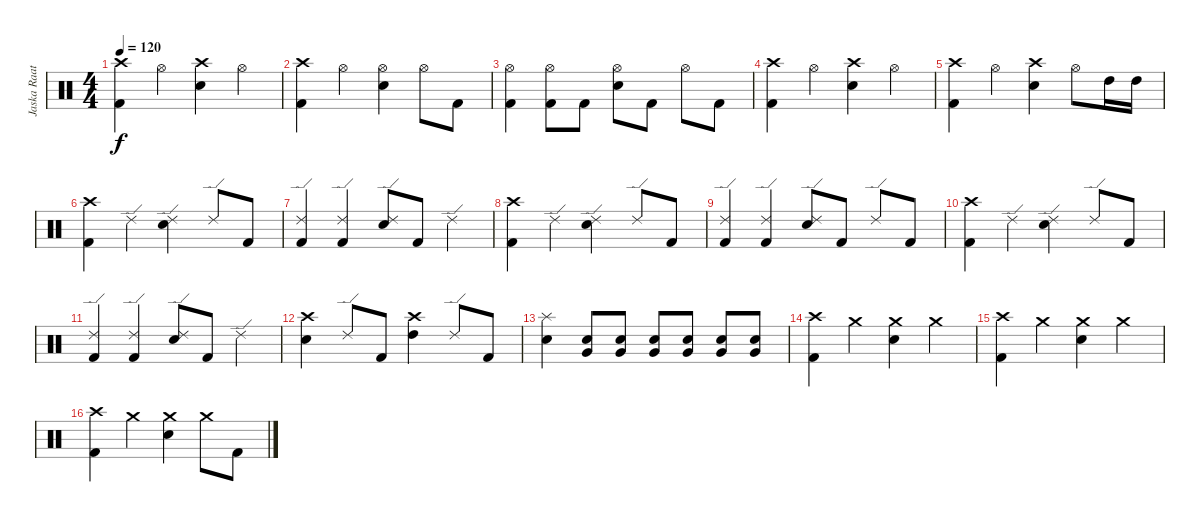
\track ("Jaska Raatikainen" "Jaska Raat") {instrument percussion}
\staff {score}
\articulation defaults
\ts (4 4)
\tempo 120
\clef neutral
\ks c
("Crash high (hit)" "Kick (hit) 2").4{dy f} "Hi-Hat (open)".4 ("Crash high (hit)" "Snare (hit) 2").4 "Hi-Hat (open)".4 |
("Crash high (hit)" "Kick (hit) 2").4 "Hi-Hat (open)".4 ("Hi-Hat (open)" "Snare (hit) 2").4 "Hi-Hat (open)".8 "Kick (hit) 2".8 |
("Hi-Hat (open)" "Kick (hit) 2").4 ("Hi-Hat (open)" "Kick (hit) 2").8 "Kick (hit) 2".8 ("Hi-Hat (open)" "Snare (hit) 2").8 "Kick (hit) 2".8 "Hi-Hat (open)".8 "Kick (hit) 2".8 |
("Crash high (hit)" "Kick (hit) 2").4 "Hi-Hat (open)".4 ("Crash high (hit)" "Snare (hit) 2").4 "Hi-Hat (open)".4 |
("Crash high (hit)" "Kick (hit) 2").4 "Hi-Hat (open)".4 ("Crash high (hit)" "Snare (hit) 2").4 "Hi-Hat (open)".8 "High Tom (hit)".16 "High Tom (hit)".16 |
("Crash high (hit)" "Kick (hit) 2").4 "Ride (edge) 2".4 ("Ride (edge) 2" "Snare (hit) 2").4 "Ride (edge) 2".8 "Kick (hit) 2".8 |
("Ride (edge) 2" "Kick (hit) 2").4 ("Ride (edge) 2" "Kick (hit) 2").4 ("Ride (edge) 2" "Snare (hit) 2").8 "Kick (hit) 2".8 "Ride (edge) 2".4 |
("Crash high (hit)" "Kick (hit) 2").4 "Ride (edge) 2".4 ("Ride (edge) 2" "Snare (hit) 2").4 "Ride (edge) 2".8 "Kick (hit) 2".8 |
("Ride (edge) 2" "Kick (hit) 2").4 ("Ride (edge) 2" "Kick (hit) 2").4 ("Ride (edge) 2" "Snare (hit) 2").8 "Kick (hit) 2".8 "Ride (edge) 2".8 "Kick (hit) 2".8 |
("Crash high (hit)" "Kick (hit) 2").4 "Ride (edge) 2".4 ("Ride (edge) 2" "Snare (hit) 2").4 "Ride (edge) 2".8 "Kick (hit) 2".8 |
("Ride (edge) 2" "Kick (hit) 2").4 ("Ride (edge) 2" "Kick (hit) 2").4 ("Ride (edge) 2" "Snare (hit) 2").8 "Kick (hit) 2".8 "Ride (edge) 2".4 |
("Crash high (hit)" "Snare (hit) 2").4 "Ride (edge) 2".8 "Kick (hit) 2".8 ("Crash high (hit)" "High Tom (hit)").4 "Ride (edge) 2".8 "Kick (hit) 2".8 |
("Splash (hit)" "Snare (hit) 2").4 ("Very Low Tom (hit)" "Snare (hit) 2").8 ("Very Low Tom (hit)" "Snare (hit) 2").8 ("Very Low Tom (hit)" "Snare (hit) 2").8 ("Very Low Tom (hit)" "Snare (hit) 2").8 ("Very Low Tom (hit)" "Snare (hit) 2").8 ("Very Low Tom (hit)" "Snare (hit) 2").8 |
("Crash high (hit)" "Kick (hit) 2").4 "Crash medium (hit)".4 ("Crash medium (hit)" "Snare (hit) 2").4 "Crash medium (hit)".4 |
("Crash high (hit)" "Kick (hit) 2").4 "Crash medium (hit)".4 ("Crash medium (hit)" "Snare (hit) 2").4 "Crash medium (hit)".4 |
("Crash high (hit)" "Kick (hit) 2").4 "Crash medium (hit)".4 ("Crash medium (hit)" "Snare (hit) 2").4 "Crash medium (hit)".8 "Kick (hit) 2".8
